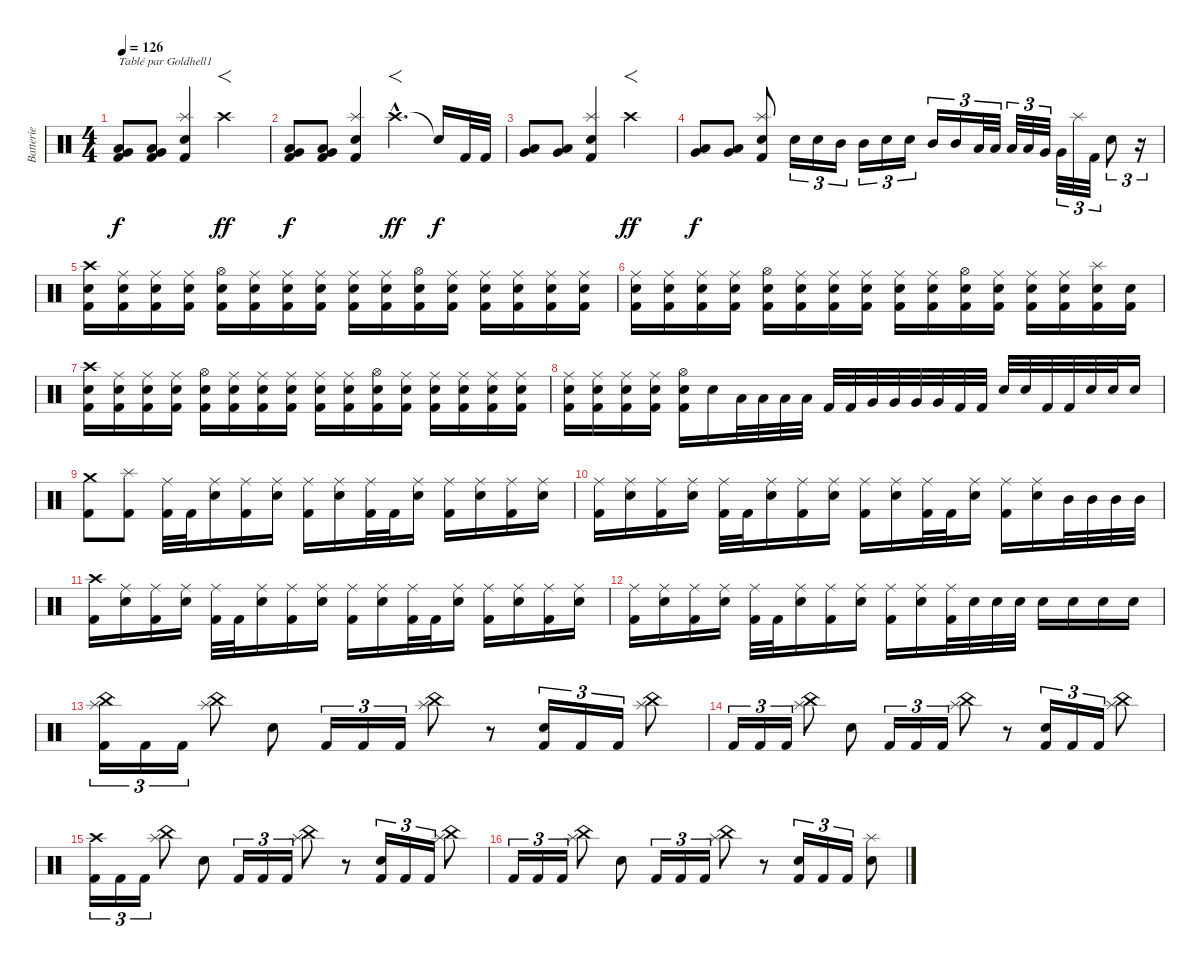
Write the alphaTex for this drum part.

\track ("Batterie" "Batterie") {instrument percussion}
\staff {score}
\articulation defaults
\ts (4 4)
\tempo 126
\clef neutral
\ks c
("Kick (hit) 2" "Very Low Tom (hit)" "Low Tom (hit)").8{txt "Tablé par Goldhell1" dy f} ("Kick (hit) 2" "Very Low Tom (hit)" "Low Tom (hit)").8 ("Splash (hit)" "Electric Snare (hit)" "Kick (hit) 2").4 "Crash high (hit)".2{f dy ff} |
("Kick (hit) 2" "Very Low Tom (hit)" "Low Tom (hit)").8{dy f} ("Kick (hit) 2" "Very Low Tom (hit)" "Low Tom (hit)").8 ("Splash (hit)" "Electric Snare (hit)" "Kick (hit) 2").4 "Crash high (hit)"{hac}.4{f d dy ff} "Snare (hit)"{t}.16{dy f} "Kick (hit) 2".32 "Kick (hit) 2".32 |
("Very Low Tom (hit)" "Low Tom (hit)").8 ("Very Low Tom (hit)" "Low Tom (hit)").8 ("Splash (hit)" "Electric Snare (hit)" "Kick (hit) 2").4 "Crash high (hit)".2{f dy ff} |
("Very Low Tom (hit)" "Low Tom (hit)").8{dy f} ("Very Low Tom (hit)" "Low Tom (hit)").8 ("Splash (hit)" "Electric Snare (hit)" "Kick (hit) 2").8 "Electric Snare (hit)".16{tu (3 2)} "Electric Snare (hit)".16{tu (3 2)} "Mid Tom (hit)".16{tu (3 2)} "Mid Tom (hit)".16{tu (3 2)} "Electric Snare (hit)".16{tu (3 2)} "Electric Snare (hit)".16{tu (3 2)} "Mid Tom (hit)".16{tu (3 2)} "Mid Tom (hit)".16{tu (3 2)} "Low Tom (hit)".32{tu (3 2)} "Low Tom (hit)".32{tu (3 2)} "Low Tom (hit)".32{tu (3 2)} "Low Tom (hit)".32{tu (3 2)} "Very Low Tom (hit)".32{tu (3 2)} "Very Low Tom (hit)".32{tu (3 2)} "Splash (hit)".32{tu (3 2)} "Kick (hit) 2".32{tu (3 2)} "Electric Snare (hit)".8{tu (3 2)} r.16{tu (3 2)} |
("Crash high (hit)" "Kick (hit) 2" "Electric Snare (hit)").16 ("Ride (middle)" "Kick (hit) 2" "Electric Snare (hit)").16 ("Ride (middle)" "Kick (hit) 2" "Electric Snare (hit)").16 ("Ride (middle)" "Kick (hit) 2" "Electric Snare (hit)").16 ("Hi-Hat (open)" "Kick (hit) 2" "Electric Snare (hit)").16 ("Ride (middle)" "Kick (hit) 2" "Electric Snare (hit)").16 ("Ride (middle)" "Kick (hit) 2" "Electric Snare (hit)").16 ("Ride (middle)" "Kick (hit) 2" "Electric Snare (hit)").16 ("Ride (middle)" "Kick (hit) 2" "Electric Snare (hit)").16 ("Ride (middle)" "Kick (hit) 2" "Electric Snare (hit)").16 ("Hi-Hat (open)" "Kick (hit) 2" "Electric Snare (hit)").16 ("Ride (middle)" "Kick (hit) 2" "Electric Snare (hit)").16 ("Ride (middle)" "Kick (hit) 2" "Electric Snare (hit)").16 ("Ride (middle)" "Kick (hit) 2" "Electric Snare (hit)").16 ("Ride (middle)" "Kick (hit) 2" "Electric Snare (hit)").16 ("Ride (middle)" "Kick (hit) 2" "Electric Snare (hit)").16 |
("Ride (middle)" "Kick (hit) 2" "Electric Snare (hit)").16 ("Ride (middle)" "Kick (hit) 2" "Electric Snare (hit)").16 ("Ride (middle)" "Kick (hit) 2" "Electric Snare (hit)").16 ("Ride (middle)" "Kick (hit) 2" "Electric Snare (hit)").16 ("Hi-Hat (open)" "Kick (hit) 2" "Electric Snare (hit)").16 ("Ride (middle)" "Kick (hit) 2" "Electric Snare (hit)").16 ("Ride (middle)" "Kick (hit) 2" "Electric Snare (hit)").16 ("Ride (middle)" "Kick (hit) 2" "Electric Snare (hit)").16 ("Ride (middle)" "Kick (hit) 2" "Electric Snare (hit)").16 ("Ride (middle)" "Kick (hit) 2" "Electric Snare (hit)").16 ("Hi-Hat (open)" "Kick (hit) 2" "Electric Snare (hit)").16 ("Ride (middle)" "Kick (hit) 2" "Electric Snare (hit)").16 ("Ride (middle)" "Kick (hit) 2" "Electric Snare (hit)").16 ("Ride (middle)" "Kick (hit) 2" "Electric Snare (hit)").16 ("Splash (hit)" "Kick (hit) 2" "Electric Snare (hit)").16 ("Kick (hit) 2" "Electric Snare (hit)").16 |
("Crash high (hit)" "Kick (hit) 2" "Electric Snare (hit)").16 ("Ride (middle)" "Kick (hit) 2" "Electric Snare (hit)").16 ("Ride (middle)" "Kick (hit) 2" "Electric Snare (hit)").16 ("Ride (middle)" "Kick (hit) 2" "Electric Snare (hit)").16 ("Hi-Hat (open)" "Kick (hit) 2" "Electric Snare (hit)").16 ("Ride (middle)" "Kick (hit) 2" "Electric Snare (hit)").16 ("Ride (middle)" "Kick (hit) 2" "Electric Snare (hit)").16 ("Ride (middle)" "Kick (hit) 2" "Electric Snare (hit)").16 ("Ride (middle)" "Kick (hit) 2" "Electric Snare (hit)").16 ("Ride (middle)" "Kick (hit) 2" "Electric Snare (hit)").16 ("Hi-Hat (open)" "Kick (hit) 2" "Electric Snare (hit)").16 ("Ride (middle)" "Kick (hit) 2" "Electric Snare (hit)").16 ("Ride (middle)" "Kick (hit) 2" "Electric Snare (hit)").16 ("Ride (middle)" "Kick (hit) 2" "Electric Snare (hit)").16 ("Ride (middle)" "Kick (hit) 2" "Electric Snare (hit)").16 ("Ride (middle)" "Kick (hit) 2" "Electric Snare (hit)").16 |
("Ride (middle)" "Kick (hit) 2" "Electric Snare (hit)").16 ("Ride (middle)" "Kick (hit) 2" "Electric Snare (hit)").16 ("Ride (middle)" "Kick (hit) 2" "Electric Snare (hit)").16 ("Ride (middle)" "Kick (hit) 2" "Electric Snare (hit)").16 ("Hi-Hat (open)" "Kick (hit) 2" "Electric Snare (hit)").16 "Electric Snare (hit)".16 "Low Tom (hit)".32 "Low Tom (hit)".32 "Low Tom (hit)".32 "Low Tom (hit)".32 "Kick (hit) 2".32 "Kick (hit) 2".32 "Very Low Tom (hit)".32 "Very Low Tom (hit)".32 "Very Low Tom (hit)".32 "Very Low Tom (hit)".32 "Kick (hit) 2".32 "Kick (hit) 2".32 "Electric Snare (hit)".32 "Electric Snare (hit)".32 "Kick (hit) 2".32 "Kick (hit) 2".32 "Electric Snare (hit)".32 "Electric Snare (hit)".32 "Electric Snare (hit)".16 |
("Crash medium (hit)" "Kick (hit) 2").8 ("Splash (hit)" "Kick (hit) 2").8 ("Ride (middle)" "Kick (hit) 2").32 "Kick (hit) 2".32 ("Ride (middle)" "Electric Snare (hit)").16 ("Ride (middle)" "Kick (hit) 2").16 ("Ride (middle)" "Electric Snare (hit)").16 ("Ride (middle)" "Kick (hit) 2").16 ("Ride (middle)" "Electric Snare (hit)").16 ("Ride (middle)" "Kick (hit) 2").32 "Kick (hit) 2".32 ("Ride (middle)" "Electric Snare (hit)").16 ("Ride (middle)" "Kick (hit) 2").16 ("Ride (middle)" "Electric Snare (hit)").16 ("Ride (middle)" "Kick (hit) 2").16 ("Ride (middle)" "Electric Snare (hit)").16 |
("Ride (middle)" "Kick (hit) 2").16 ("Electric Snare (hit)" "Ride (middle)").16 ("Ride (middle)" "Kick (hit) 2").16 ("Ride (middle)" "Electric Snare (hit)").16 ("Ride (middle)" "Kick (hit) 2").32 "Kick (hit) 2".32 ("Ride (middle)" "Electric Snare (hit)").16 ("Ride (middle)" "Kick (hit) 2").16 ("Ride (middle)" "Electric Snare (hit)").16 ("Ride (middle)" "Kick (hit) 2").16 ("Ride (middle)" "Electric Snare (hit)").16 ("Kick (hit) 2" "Ride (middle)").32 "Kick (hit) 2".32 ("Ride (middle)" "Electric Snare (hit)").16 ("Ride (middle)" "Kick (hit) 2").16 ("Ride (middle)" "Electric Snare (hit)").16 "Mid Tom (hit)".32 "Mid Tom (hit)".32 "Mid Tom (hit)".32 "Mid Tom (hit)".32 |
("Crash high (hit)" "Kick (hit) 2").16 ("Ride (middle)" "Electric Snare (hit)").16 ("Ride (middle)" "Kick (hit) 2").16 ("Ride (middle)" "Electric Snare (hit)").16 ("Ride (middle)" "Kick (hit) 2").32 "Kick (hit) 2".32 ("Ride (middle)" "Electric Snare (hit)").16 ("Ride (middle)" "Kick (hit) 2").16 ("Ride (middle)" "Electric Snare (hit)").16 ("Ride (middle)" "Kick (hit) 2").16 ("Ride (middle)" "Electric Snare (hit)").16 ("Ride (middle)" "Kick (hit) 2").32 "Kick (hit) 2".32 ("Ride (middle)" "Electric Snare (hit)").16 ("Ride (middle)" "Kick (hit) 2").16 ("Ride (middle)" "Electric Snare (hit)").16 ("Ride (middle)" "Kick (hit) 2").16 ("Ride (middle)" "Electric Snare (hit)").16 |
("Ride (middle)" "Kick (hit) 2").16 ("Ride (middle)" "Electric Snare (hit)").16 ("Ride (middle)" "Kick (hit) 2").16 ("Ride (middle)" "Electric Snare (hit)").16 ("Ride (middle)" "Kick (hit) 2").32 "Kick (hit) 2".32 ("Ride (middle)" "Electric Snare (hit)").16 ("Ride (middle)" "Kick (hit) 2").16 ("Ride (middle)" "Electric Snare (hit)").16 ("Ride (middle)" "Kick (hit) 2").16 ("Ride (middle)" "Electric Snare (hit)").16 ("Ride (middle)" "Kick (hit) 2").32 "Electric Snare (hit)".32 "Electric Snare (hit)".32 "Electric Snare (hit)".32 "Electric Snare (hit)".16 "Electric Snare (hit)".16 "Electric Snare (hit)".16 "Electric Snare (hit)".16 |
("China (hit)" "Splash (hit)" "Kick (hit) 2").16{tu (3 2)} "Kick (hit) 2".16{tu (3 2)} "Kick (hit) 2".16{tu (3 2)} ("China (hit)" "Splash (hit)").8 "Electric Snare (hit)".8 "Kick (hit) 2".16{tu (3 2)} "Kick (hit) 2".16{tu (3 2)} "Kick (hit) 2".16{tu (3 2)} ("China (hit)" "Splash (hit)").8 r.8 ("Electric Snare (hit)" "Kick (hit) 2").16{tu (3 2)} "Kick (hit) 2".16{tu (3 2)} "Kick (hit) 2".16{tu (3 2)} ("Splash (hit)" "China (hit)").8 |
"Kick (hit) 2".16{tu (3 2)} "Kick (hit) 2".16{tu (3 2)} "Kick (hit) 2".16{tu (3 2)} ("Splash (hit)" "China (hit)").8 "Electric Snare (hit)".8 "Kick (hit) 2".16{tu (3 2)} "Kick (hit) 2".16{tu (3 2)} "Kick (hit) 2".16{tu (3 2)} ("Splash (hit)" "China (hit)").8 r.8 ("Electric Snare (hit)" "Kick (hit) 2").16{tu (3 2)} "Kick (hit) 2".16{tu (3 2)} "Kick (hit) 2".16{tu (3 2)} ("Splash (hit)" "China (hit)").8 |
("Crash high (hit)" "Kick (hit) 2").16{tu (3 2)} "Kick (hit) 2".16{tu (3 2)} "Kick (hit) 2".16{tu (3 2)} ("China (hit)" "Splash (hit)").8 "Electric Snare (hit)".8 "Kick (hit) 2".16{tu (3 2)} "Kick (hit) 2".16{tu (3 2)} "Kick (hit) 2".16{tu (3 2)} ("China (hit)" "Splash (hit)").8 r.8 ("Electric Snare (hit)" "Kick (hit) 2").16{tu (3 2)} "Kick (hit) 2".16{tu (3 2)} "Kick (hit) 2".16{tu (3 2)} ("Splash (hit)" "China (hit)").8 |
"Kick (hit) 2".16{tu (3 2)} "Kick (hit) 2".16{tu (3 2)} "Kick (hit) 2".16{tu (3 2)} ("China (hit)" "Splash (hit)").8 "Electric Snare (hit)".8 "Kick (hit) 2".16{tu (3 2)} "Kick (hit) 2".16{tu (3 2)} "Kick (hit) 2".16{tu (3 2)} ("China (hit)" "Splash (hit)").8 r.8 ("Electric Snare (hit)" "Kick (hit) 2").16{tu (3 2)} "Kick (hit) 2".16{tu (3 2)} "Kick (hit) 2".16{tu (3 2)} ("Splash (hit)" "Electric Snare (hit)").8
